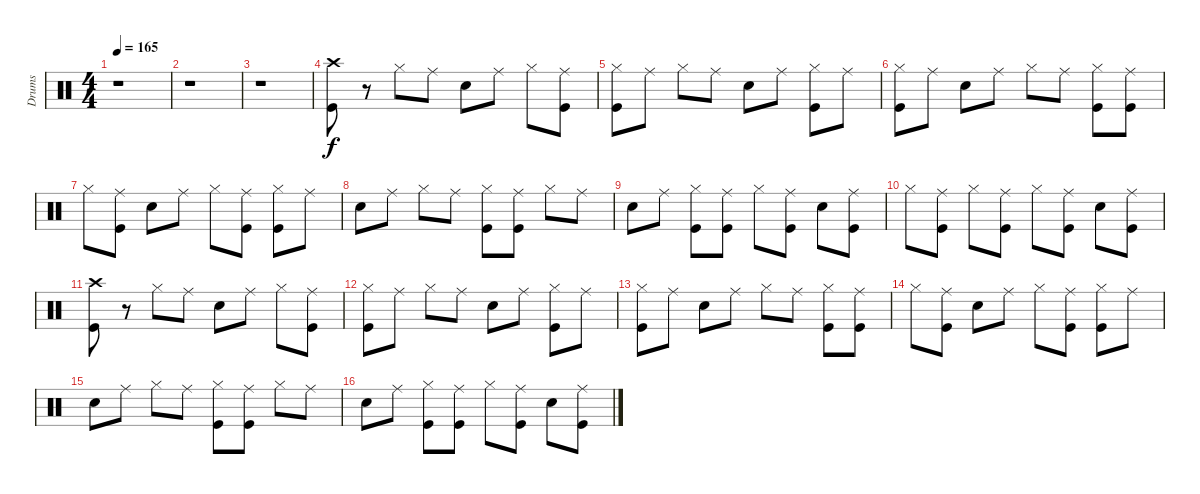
\track ("Drums" "Drums") {instrument percussion}
\staff {score}
\articulation defaults
\ts (4 4)
\tempo 165
\clef neutral
\ks c
r.1{dy f} |
r.1 |
r.1 |
("Crash high (hit)" "Kick (hit)").8 r.8 "Hi-Hat (closed)".8 "Ride (middle)".8 "Electric Snare (hit)".8 "Ride (middle)".8 "Hi-Hat (closed)".8 ("Ride (middle)" "Kick (hit)").8 |
("Hi-Hat (closed)" "Kick (hit)").8 "Ride (middle)".8 "Hi-Hat (closed)".8 "Ride (middle)".8 "Electric Snare (hit)".8 "Ride (middle)".8 ("Hi-Hat (closed)" "Kick (hit)").8 "Ride (middle)".8 |
("Hi-Hat (closed)" "Kick (hit)").8 "Ride (middle)".8 "Electric Snare (hit)".8 "Ride (middle)".8 "Hi-Hat (closed)".8 "Ride (middle)".8 ("Hi-Hat (closed)" "Kick (hit)").8 ("Ride (middle)" "Kick (hit)").8 |
"Hi-Hat (closed)".8 ("Ride (middle)" "Kick (hit)").8 "Electric Snare (hit)".8 "Ride (middle)".8 "Hi-Hat (closed)".8 ("Ride (middle)" "Kick (hit)").8 ("Hi-Hat (closed)" "Kick (hit)").8 "Ride (middle)".8 |
"Electric Snare (hit)".8 "Ride (middle)".8 "Hi-Hat (closed)".8 "Ride (middle)".8 ("Hi-Hat (closed)" "Kick (hit)").8 ("Ride (middle)" "Kick (hit)").8 "Hi-Hat (closed)".8 "Ride (middle)".8 |
"Electric Snare (hit)".8 "Ride (middle)".8 ("Hi-Hat (closed)" "Kick (hit)").8 ("Ride (middle)" "Kick (hit)").8 "Hi-Hat (closed)".8 ("Ride (middle)" "Kick (hit)").8 "Electric Snare (hit)".8 ("Ride (middle)" "Kick (hit)").8 |
"Hi-Hat (closed)".8 ("Ride (middle)" "Kick (hit)").8 "Hi-Hat (closed)".8 ("Ride (middle)" "Kick (hit)").8 "Hi-Hat (closed)".8 ("Ride (middle)" "Kick (hit)").8 "Electric Snare (hit)".8 ("Ride (middle)" "Kick (hit)").8 |
("Crash high (hit)" "Kick (hit)").8 r.8 "Hi-Hat (closed)".8 "Ride (middle)".8 "Electric Snare (hit)".8 "Ride (middle)".8 "Hi-Hat (closed)".8 ("Ride (middle)" "Kick (hit)").8 |
("Hi-Hat (closed)" "Kick (hit)").8 "Ride (middle)".8 "Hi-Hat (closed)".8 "Ride (middle)".8 "Electric Snare (hit)".8 "Ride (middle)".8 ("Hi-Hat (closed)" "Kick (hit)").8 "Ride (middle)".8 |
("Hi-Hat (closed)" "Kick (hit)").8 "Ride (middle)".8 "Electric Snare (hit)".8 "Ride (middle)".8 "Hi-Hat (closed)".8 "Ride (middle)".8 ("Hi-Hat (closed)" "Kick (hit)").8 ("Ride (middle)" "Kick (hit)").8 |
"Hi-Hat (closed)".8 ("Ride (middle)" "Kick (hit)").8 "Electric Snare (hit)".8 "Ride (middle)".8 "Hi-Hat (closed)".8 ("Ride (middle)" "Kick (hit)").8 ("Hi-Hat (closed)" "Kick (hit)").8 "Ride (middle)".8 |
"Electric Snare (hit)".8 "Ride (middle)".8 "Hi-Hat (closed)".8 "Ride (middle)".8 ("Hi-Hat (closed)" "Kick (hit)").8 ("Ride (middle)" "Kick (hit)").8 "Hi-Hat (closed)".8 "Ride (middle)".8 |
"Electric Snare (hit)".8 "Ride (middle)".8 ("Hi-Hat (closed)" "Kick (hit)").8 ("Ride (middle)" "Kick (hit)").8 "Hi-Hat (closed)".8 ("Ride (middle)" "Kick (hit)").8 "Electric Snare (hit)".8 ("Ride (middle)" "Kick (hit)").8
